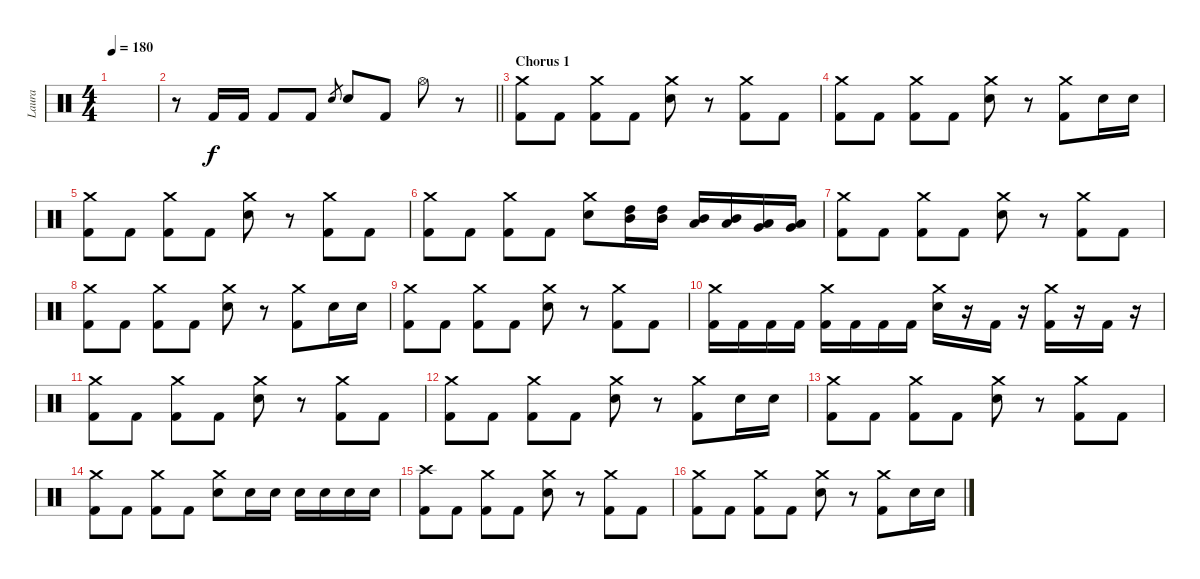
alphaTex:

\track ("Laura" "Laura") {instrument percussion}
\staff {score}
\articulation defaults
\ts (4 4)
\tempo 180
\clef neutral
\ks c
|
\barLineRight lightlight
r.8 "Kick (hit) 2".16 "Kick (hit) 2".16 "Kick (hit) 2".8 "Kick (hit) 2".8 "Electric Snare (hit)".8{gr} "Electric Snare (hit)".8 "Kick (hit) 2".8 "Hi-Hat (open)".8 r.8 |
\section ("" "Chorus 1")
("Crash medium (hit)" "Kick (hit) 2").8 "Kick (hit) 2".8 ("Crash medium (hit)" "Kick (hit) 2").8 "Kick (hit) 2".8 ("Crash medium (hit)" "Electric Snare (hit)").8 r.8 ("Crash medium (hit)" "Kick (hit) 2").8 "Kick (hit) 2".8 |
("Crash medium (hit)" "Kick (hit) 2").8 "Kick (hit) 2".8 ("Crash medium (hit)" "Kick (hit) 2").8 "Kick (hit) 2".8 ("Crash medium (hit)" "Electric Snare (hit)").8 r.8 ("Crash medium (hit)" "Kick (hit) 2").8 "Electric Snare (hit)".16 "Electric Snare (hit)".16 |
("Crash medium (hit)" "Kick (hit) 2").8 "Kick (hit) 2".8 ("Crash medium (hit)" "Kick (hit) 2").8 "Kick (hit) 2".8 ("Crash medium (hit)" "Electric Snare (hit)").8 r.8 ("Crash medium (hit)" "Kick (hit) 2").8 "Kick (hit) 2".8 |
("Crash medium (hit)" "Kick (hit) 2").8 "Kick (hit) 2".8 ("Crash medium (hit)" "Kick (hit) 2").8 "Kick (hit) 2".8 ("Crash medium (hit)" "Electric Snare (hit)").8 ("High Tom (hit)" "Mid Tom (hit)").16 ("High Tom (hit)" "Mid Tom (hit)").16 ("Mid Tom (hit)" "Low Tom (hit)").16 ("Mid Tom (hit)" "Low Tom (hit)").16 ("Low Tom (hit)" "Very Low Tom (hit)").16 ("Low Tom (hit)" "Very Low Tom (hit)").16 |
("Crash medium (hit)" "Kick (hit) 2").8 "Kick (hit) 2".8 ("Crash medium (hit)" "Kick (hit) 2").8 "Kick (hit) 2".8 ("Crash medium (hit)" "Electric Snare (hit)").8 r.8 ("Crash medium (hit)" "Kick (hit) 2").8 "Kick (hit) 2".8 |
("Crash medium (hit)" "Kick (hit) 2").8 "Kick (hit) 2".8 ("Crash medium (hit)" "Kick (hit) 2").8 "Kick (hit) 2".8 ("Crash medium (hit)" "Electric Snare (hit)").8 r.8 ("Crash medium (hit)" "Kick (hit) 2").8 "Electric Snare (hit)".16 "Electric Snare (hit)".16 |
("Crash medium (hit)" "Kick (hit) 2").8 "Kick (hit) 2".8 ("Crash medium (hit)" "Kick (hit) 2").8 "Kick (hit) 2".8 ("Crash medium (hit)" "Electric Snare (hit)").8 r.8 ("Crash medium (hit)" "Kick (hit) 2").8 "Kick (hit) 2".8 |
("Crash medium (hit)" "Kick (hit) 2").16 "Kick (hit) 2".16 "Kick (hit) 2".16 "Kick (hit) 2".16 ("Crash medium (hit)" "Kick (hit) 2").16 "Kick (hit) 2".16 "Kick (hit) 2".16 "Kick (hit) 2".16 ("Crash medium (hit)" "Electric Snare (hit)").16 r.16 "Kick (hit) 2".16 r.16 ("Crash medium (hit)" "Kick (hit) 2").16 r.16 "Kick (hit) 2".16 r.16 |
("Crash medium (hit)" "Kick (hit) 2").8 "Kick (hit) 2".8 ("Crash medium (hit)" "Kick (hit) 2").8 "Kick (hit) 2".8 ("Crash medium (hit)" "Electric Snare (hit)").8 r.8 ("Crash medium (hit)" "Kick (hit) 2").8 "Kick (hit) 2".8 |
("Crash medium (hit)" "Kick (hit) 2").8 "Kick (hit) 2".8 ("Crash medium (hit)" "Kick (hit) 2").8 "Kick (hit) 2".8 ("Crash medium (hit)" "Electric Snare (hit)").8 r.8 ("Crash medium (hit)" "Kick (hit) 2").8 "Electric Snare (hit)".16 "Electric Snare (hit)".16 |
("Crash medium (hit)" "Kick (hit) 2").8 "Kick (hit) 2".8 ("Crash medium (hit)" "Kick (hit) 2").8 "Kick (hit) 2".8 ("Crash medium (hit)" "Electric Snare (hit)").8 r.8 ("Crash medium (hit)" "Kick (hit) 2").8 "Kick (hit) 2".8 |
("Crash medium (hit)" "Kick (hit) 2").8 "Kick (hit) 2".8 ("Crash medium (hit)" "Kick (hit) 2").8 "Kick (hit) 2".8 ("Crash medium (hit)" "Electric Snare (hit)").8 "Electric Snare (hit)".16 "Electric Snare (hit)".16 "Electric Snare (hit)".16 "Electric Snare (hit)".16 "Electric Snare (hit)".16 "Electric Snare (hit)".16 |
("Crash high (hit)" "Kick (hit) 2").8 "Kick (hit) 2".8 ("Crash medium (hit)" "Kick (hit) 2").8 "Kick (hit) 2".8 ("Crash medium (hit)" "Electric Snare (hit)").8 r.8 ("Crash medium (hit)" "Kick (hit) 2").8 "Kick (hit) 2".8 |
("Crash medium (hit)" "Kick (hit) 2").8 "Kick (hit) 2".8 ("Crash medium (hit)" "Kick (hit) 2").8 "Kick (hit) 2".8 ("Crash medium (hit)" "Electric Snare (hit)").8 r.8 ("Crash medium (hit)" "Kick (hit) 2").8 "Electric Snare (hit)".16 "Electric Snare (hit)".16
